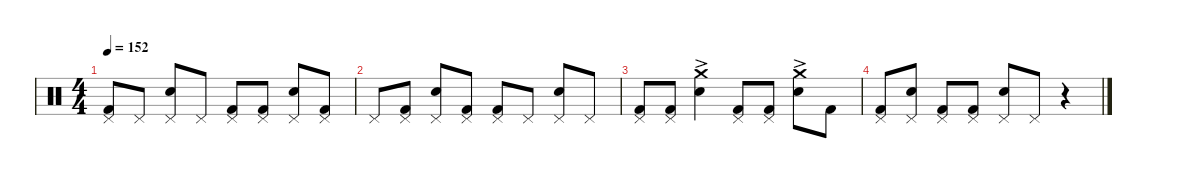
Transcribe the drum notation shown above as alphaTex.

\hideDynamics
\bracketExtendMode nobrackets
\singleTrackTrackNamePolicy hidden
\multiTrackTrackNamePolicy hidden
\firstSystemTrackNameMode fullname
\firstSystemTrackNameOrientation horizontal
\otherSystemsTrackNameOrientation horizontal
\track ("Drumkit" "Drums") {instrument percussion}
\staff {score}
\articulation defaults
\ts (4 4)
\tempo 152
\clef neutral
\ks c
("Pedal Hi-Hat (hit)" "Kick (hit) 2").8{dy f beam Up} "Pedal Hi-Hat (hit)".8{beam Up} ("Pedal Hi-Hat (hit)" "Snare (hit) 2").8{beam Up} "Pedal Hi-Hat (hit)".8{beam Up} ("Pedal Hi-Hat (hit)" "Kick (hit) 2").8{beam Up} ("Pedal Hi-Hat (hit)" "Kick (hit) 2").8{beam Up} ("Pedal Hi-Hat (hit)" "Snare (hit) 2").8{beam Up} ("Pedal Hi-Hat (hit)" "Kick (hit) 2").8{beam Up} |
"Pedal Hi-Hat (hit)".8{beam Up} ("Pedal Hi-Hat (hit)" "Kick (hit) 2").8{beam Up} ("Pedal Hi-Hat (hit)" "Snare (hit) 2").8{beam Up} ("Pedal Hi-Hat (hit)" "Kick (hit) 2").8{beam Up} ("Pedal Hi-Hat (hit)" "Kick (hit) 2").8{beam Up} "Pedal Hi-Hat (hit)".8{beam Up} ("Pedal Hi-Hat (hit)" "Snare (hit) 2").8{beam Up} "Pedal Hi-Hat (hit)".8{beam Up} |
("Pedal Hi-Hat (hit)" "Kick (hit) 2").8{beam Up} ("Pedal Hi-Hat (hit)" "Kick (hit) 2").8{beam Up} ("Crash medium (hit)"{ac} "Snare (hit) 2").4{beam Down} ("Pedal Hi-Hat (hit)" "Kick (hit) 2").8{beam Up} ("Pedal Hi-Hat (hit)" "Kick (hit) 2").8{beam Up} ("Crash medium (hit)"{ac} "Snare (hit) 2").8{beam Down} "Kick (hit) 2".8{beam Down} |
("Pedal Hi-Hat (hit)" "Kick (hit) 2").8{beam Up} ("Pedal Hi-Hat (hit)" "Snare (hit) 2").8{beam Up} ("Pedal Hi-Hat (hit)" "Kick (hit) 2").8{beam Up} ("Pedal Hi-Hat (hit)" "Kick (hit) 2").8{beam Up} ("Pedal Hi-Hat (hit)" "Snare (hit) 2").8{beam Up} "Pedal Hi-Hat (hit)".8{beam Up} r.4{beam Up}
